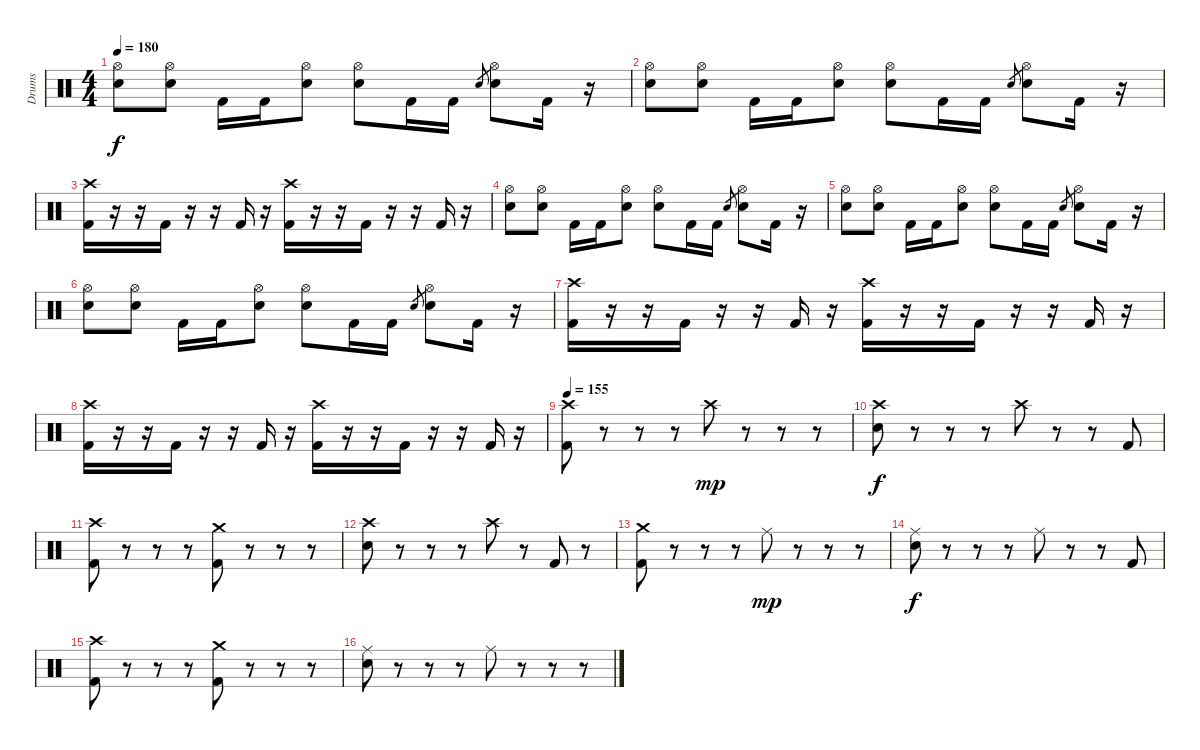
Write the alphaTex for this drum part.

\track ("Drums" "Drums") {instrument percussion}
\staff {score}
\articulation defaults
\ts (4 4)
\tempo 180
\clef neutral
\ks c
("Electric Snare (hit)" "Hi-Hat (open)").8{dy f} ("Electric Snare (hit)" "Hi-Hat (open)").8 "Kick (hit) 2".16 "Kick (hit) 2".16 ("Electric Snare (hit)" "Hi-Hat (open)").8 ("Electric Snare (hit)" "Hi-Hat (open)").8 "Kick (hit) 2".16 "Kick (hit) 2".16 "Electric Snare (hit)".8{gr} ("Electric Snare (hit)" "Hi-Hat (open)").8 "Kick (hit) 2".16 r.16 |
("Electric Snare (hit)" "Hi-Hat (open)").8 ("Electric Snare (hit)" "Hi-Hat (open)").8 "Kick (hit) 2".16 "Kick (hit) 2".16 ("Electric Snare (hit)" "Hi-Hat (open)").8 ("Electric Snare (hit)" "Hi-Hat (open)").8 "Kick (hit) 2".16 "Kick (hit) 2".16 "Electric Snare (hit)".8{gr} ("Electric Snare (hit)" "Hi-Hat (open)").8 "Kick (hit) 2".16 r.16 |
("Kick (hit) 2" "Crash high (hit)").16 r.16 r.16 "Kick (hit) 2".16 r.16 r.16 "Kick (hit) 2".16 r.16 ("Kick (hit) 2" "Crash high (hit)").16 r.16 r.16 "Kick (hit) 2".16 r.16 r.16 "Kick (hit) 2".16 r.16 |
("Electric Snare (hit)" "Hi-Hat (open)").8 ("Electric Snare (hit)" "Hi-Hat (open)").8 "Kick (hit) 2".16 "Kick (hit) 2".16 ("Electric Snare (hit)" "Hi-Hat (open)").8 ("Electric Snare (hit)" "Hi-Hat (open)").8 "Kick (hit) 2".16 "Kick (hit) 2".16 "Electric Snare (hit)".8{gr} ("Electric Snare (hit)" "Hi-Hat (open)").8 "Kick (hit) 2".16 r.16 |
("Electric Snare (hit)" "Hi-Hat (open)").8 ("Electric Snare (hit)" "Hi-Hat (open)").8 "Kick (hit) 2".16 "Kick (hit) 2".16 ("Electric Snare (hit)" "Hi-Hat (open)").8 ("Electric Snare (hit)" "Hi-Hat (open)").8 "Kick (hit) 2".16 "Kick (hit) 2".16 "Electric Snare (hit)".8{gr} ("Electric Snare (hit)" "Hi-Hat (open)").8 "Kick (hit) 2".16 r.16 |
("Electric Snare (hit)" "Hi-Hat (open)").8 ("Electric Snare (hit)" "Hi-Hat (open)").8 "Kick (hit) 2".16 "Kick (hit) 2".16 ("Electric Snare (hit)" "Hi-Hat (open)").8 ("Electric Snare (hit)" "Hi-Hat (open)").8 "Kick (hit) 2".16 "Kick (hit) 2".16 "Electric Snare (hit)".8{gr} ("Electric Snare (hit)" "Hi-Hat (open)").8 "Kick (hit) 2".16 r.16 |
("Kick (hit) 2" "Crash high (hit)").16 r.16 r.16 "Kick (hit) 2".16 r.16 r.16 "Kick (hit) 2".16 r.16 ("Kick (hit) 2" "Crash high (hit)").16 r.16 r.16 "Kick (hit) 2".16 r.16 r.16 "Kick (hit) 2".16 r.16 |
("Kick (hit) 2" "Crash high (hit)").16 r.16 r.16 "Kick (hit) 2".16 r.16 r.16 "Kick (hit) 2".16 r.16 ("Kick (hit) 2" "Crash high (hit)").16 r.16 r.16 "Kick (hit) 2".16 r.16 r.16 "Kick (hit) 2".16 r.16 |
\tempo 155
("Crash high (hit)" "Kick (hit) 2").8 r.8 r.8 r.8 "Crash high (hit)".8{dy mp} r.8 r.8 r.8 |
("Crash high (hit)" "Electric Snare (hit)").8{dy f} r.8 r.8 r.8 "Crash high (hit)".8 r.8 r.8 "Kick (hit) 2".8 |
("Crash high (hit)" "Kick (hit) 2").8 r.8 r.8 r.8 ("Crash medium (hit)" "Kick (hit) 2").8 r.8 r.8 r.8 |
("Crash high (hit)" "Electric Snare (hit)").8 r.8 r.8 r.8 "Crash high (hit)".8 r.8 "Kick (hit) 2".8 r.8 |
("Crash medium (hit)" "Kick (hit) 2").8 r.8 r.8 r.8 "Ride (middle)".8{dy mp} r.8 r.8 r.8 |
("Ride (middle)" "Electric Snare (hit)").8{dy f} r.8 r.8 r.8 "Ride (middle)".8 r.8 r.8 "Kick (hit) 2".8 |
("Crash high (hit)" "Kick (hit) 2").8 r.8 r.8 r.8 ("Crash medium (hit)" "Kick (hit) 2").8 r.8 r.8 r.8 |
("Ride (middle)" "Electric Snare (hit)").8 r.8 r.8 r.8 "Ride (middle)".8 r.8 r.8 r.8
